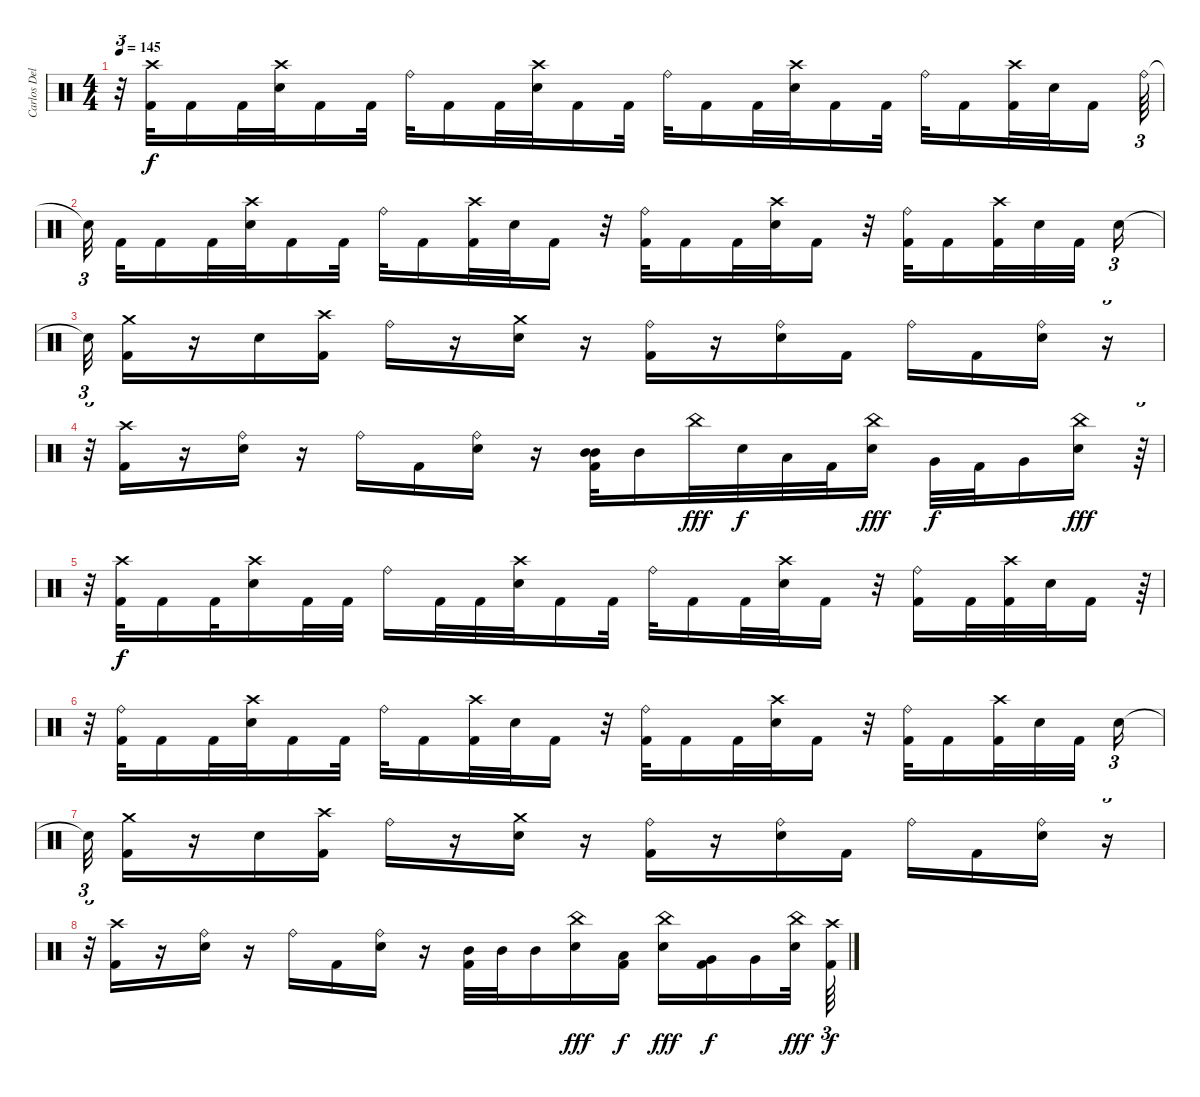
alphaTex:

\track ("Carlos Delgado" "Carlos Del") {instrument percussion}
\staff {score}
\articulation defaults
\ts (4 4)
\tempo 145
\clef neutral
\ks c
r.32{tu (3 2) dy fff} ("Crash high (hit)" "Kick (hit) 2").32{dy f} "Kick (hit) 2".16 "Kick (hit) 2".32 ("Crash high (hit)" "Electric Snare (hit)").32 "Kick (hit) 2".16 "Kick (hit) 2".32 "Ride (bell)".32 "Kick (hit) 2".16 "Kick (hit) 2".32 ("Crash high (hit)" "Electric Snare (hit)").32 "Kick (hit) 2".16 "Kick (hit) 2".32 "Ride (bell)".32 "Kick (hit) 2".16 "Kick (hit) 2".32 ("Crash high (hit)" "Electric Snare (hit)").32 "Kick (hit) 2".16 "Kick (hit) 2".32 "Ride (bell)".32 "Kick (hit) 2".16 ("Kick (hit) 2" "Crash high (hit)").32 "Electric Snare (hit)".32 "Kick (hit) 2".16{beam splitsecondary} "Ride (bell)".64{tu (3 2)} |
"Snare (hit)"{t}.32{tu (3 2) beam splitsecondary} "Kick (hit) 2".32 "Kick (hit) 2".16 "Kick (hit) 2".32 ("Crash high (hit)" "Electric Snare (hit)").32 "Kick (hit) 2".16 "Kick (hit) 2".32 "Ride (bell)".32 "Kick (hit) 2".16 ("Kick (hit) 2" "Crash high (hit)").32 "Electric Snare (hit)".32 "Kick (hit) 2".16 r.32 ("Ride (bell)" "Kick (hit) 2").32 "Kick (hit) 2".16 "Kick (hit) 2".32 ("Crash high (hit)" "Electric Snare (hit)").32 "Kick (hit) 2".16 r.32 ("Kick (hit) 2" "Ride (bell)").32 "Kick (hit) 2".16 ("Crash high (hit)" "Kick (hit) 2").32 "Electric Snare (hit)".32 "Kick (hit) 2".32{beam splitsecondary} "Electric Snare (hit)".16{tu (3 2)} |
"Snare (hit)"{t}.32{tu (3 2)} ("Kick (hit) 2" "Crash medium (hit)").16 r.16 "Electric Snare (hit)".16 ("Kick (hit) 2" "Crash high (hit)").16 "Ride (bell)".16 r.16 ("Crash medium (hit)" "Electric Snare (hit)").16 r.16 ("Ride (bell)" "Kick (hit) 2").16 r.16 ("Ride (bell)" "Electric Snare (hit)").16 "Kick (hit) 2".16 "Ride (bell)".16 "Kick (hit) 2".16 ("Ride (bell)" "Electric Snare (hit)").16 r.16{tu (3 2)} |
r.32{tu (3 2)} ("Kick (hit) 2" "Crash high (hit)").16 r.16 ("Ride (bell)" "Electric Snare (hit)").16 r.16 "Ride (bell)".16 "Kick (hit) 2".16 ("Ride (bell)" "Electric Snare (hit)").16 r.16 ("Mid Tom (hit)" "Kick (hit) 2" "Mid Tom (hit)").32 "Mid Tom (hit)".16 "China (hit)".32{dy fff} "Electric Snare (hit)".32{dy f} "Low Tom (hit)".32 "Kick (hit) 2".32 ("China (hit)" "Electric Snare (hit)").16{dy fff} "Very Low Tom (hit)".32{dy f} "Kick (hit) 2".32 "Very Low Tom (hit)".16 ("Electric Snare (hit)" "China (hit)").16{dy fff} r.64{tu (3 2)} |
r.32{tu (3 2)} ("Crash high (hit)" "Kick (hit) 2").32{dy f} "Kick (hit) 2".16 "Kick (hit) 2".32 ("Crash high (hit)" "Electric Snare (hit)").16 "Kick (hit) 2".32 "Kick (hit) 2".32 "Ride (bell)".16 "Kick (hit) 2".32 "Kick (hit) 2".32 ("Crash high (hit)" "Electric Snare (hit)").32 "Kick (hit) 2".16 "Kick (hit) 2".32 "Ride (bell)".32 "Kick (hit) 2".16 "Kick (hit) 2".32 ("Crash high (hit)" "Electric Snare (hit)").32 "Kick (hit) 2".16 r.32 ("Kick (hit) 2" "Ride (bell)").16 "Kick (hit) 2".32 ("Kick (hit) 2" "Crash high (hit)").32 "Electric Snare (hit)".32 "Kick (hit) 2".16 r.64{tu (3 2)} |
r.32{tu (3 2)} ("Ride (bell)" "Kick (hit) 2").32 "Kick (hit) 2".16 "Kick (hit) 2".32 ("Crash high (hit)" "Electric Snare (hit)").32 "Kick (hit) 2".16 "Kick (hit) 2".32 "Ride (bell)".32 "Kick (hit) 2".16 ("Kick (hit) 2" "Crash high (hit)").32 "Electric Snare (hit)".32 "Kick (hit) 2".16 r.32 ("Ride (bell)" "Kick (hit) 2").32 "Kick (hit) 2".16 "Kick (hit) 2".32 ("Crash high (hit)" "Electric Snare (hit)").32 "Kick (hit) 2".16 r.32 ("Kick (hit) 2" "Ride (bell)").32 "Kick (hit) 2".16 ("Crash high (hit)" "Kick (hit) 2").32 "Electric Snare (hit)".32 "Kick (hit) 2".32{beam splitsecondary} "Electric Snare (hit)".16{tu (3 2)} |
"Snare (hit)"{t}.32{tu (3 2)} ("Kick (hit) 2" "Crash medium (hit)").16 r.16 "Electric Snare (hit)".16 ("Kick (hit) 2" "Crash high (hit)").16 "Ride (bell)".16 r.16 ("Crash medium (hit)" "Electric Snare (hit)").16 r.16 ("Ride (bell)" "Kick (hit) 2").16 r.16 ("Ride (bell)" "Electric Snare (hit)").16 "Kick (hit) 2".16 "Ride (bell)".16 "Kick (hit) 2".16 ("Ride (bell)" "Electric Snare (hit)").16 r.16{tu (3 2)} |
r.32{tu (3 2)} ("Kick (hit) 2" "Crash high (hit)").16 r.16 ("Ride (bell)" "Electric Snare (hit)").16 r.16 "Ride (bell)".16 "Kick (hit) 2".16 ("Ride (bell)" "Electric Snare (hit)").16 r.16 ("Mid Tom (hit)" "Kick (hit) 2").32 "Mid Tom (hit)".32 "Mid Tom (hit)".16 ("China (hit)" "Electric Snare (hit)").16{dy fff} ("Low Tom (hit)" "Kick (hit) 2").16{dy f} ("China (hit)" "Electric Snare (hit)").16{dy fff} ("Very Low Tom (hit)" "Kick (hit) 2").16{dy f} "Very Low Tom (hit)".16 ("Electric Snare (hit)" "China (hit)").32{dy fff} ("Kick (hit) 2" "Crash high (hit)").64{tu (3 2) dy f}
